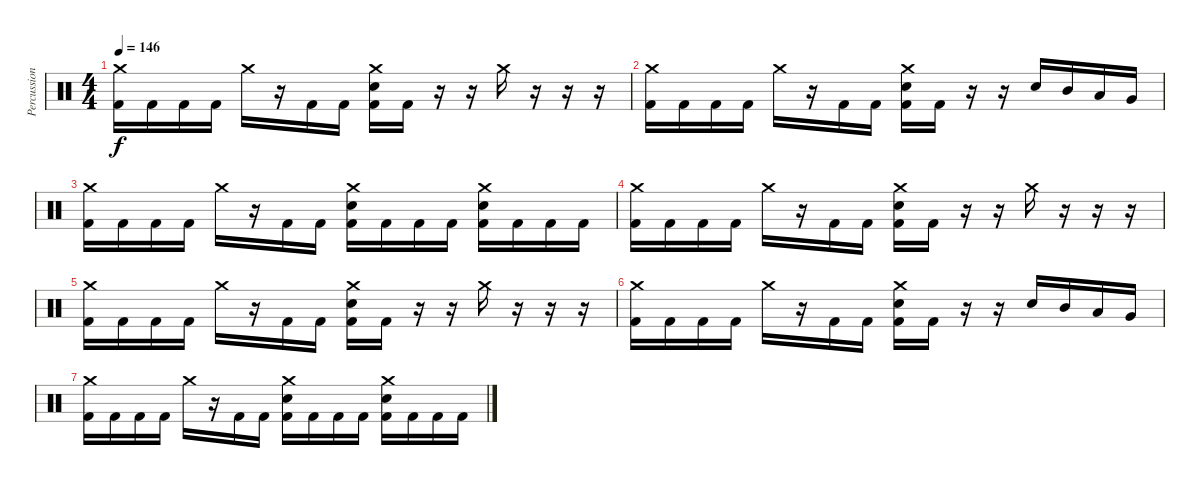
\track ("Percussion" "Percussion") {instrument percussion}
\staff {score}
\articulation defaults
\ts (4 4)
\tempo 146
\clef neutral
\ks c
("Crash medium (hit)" "Kick (hit) 2").16{dy f volume 16} "Kick (hit) 2".16 "Kick (hit) 2".16 "Kick (hit) 2".16 "Crash medium (hit)".16 r.16 "Kick (hit) 2".16 "Kick (hit) 2".16 ("Crash medium (hit)" "Snare (hit) 2" "Kick (hit) 2").16 "Kick (hit) 2".16 r.16 r.16 "Crash medium (hit)".16 r.16 r.16 r.16 |
("Crash medium (hit)" "Kick (hit) 2").16{volume 16} "Kick (hit) 2".16 "Kick (hit) 2".16 "Kick (hit) 2".16 "Crash medium (hit)".16 r.16 "Kick (hit) 2".16 "Kick (hit) 2".16 ("Crash medium (hit)" "Snare (hit) 2" "Kick (hit) 2").16 "Kick (hit) 2".16 r.16 r.16 "Snare (hit) 2".16 "Mid Tom (hit)".16 "Low Tom (hit)".16 "Very Low Tom (hit)".16 |
("Crash medium (hit)" "Kick (hit) 2").16{volume 16} "Kick (hit) 2".16 "Kick (hit) 2".16 "Kick (hit) 2".16 "Crash medium (hit)".16 r.16 "Kick (hit) 2".16 "Kick (hit) 2".16 ("Crash medium (hit)" "Snare (hit) 2" "Kick (hit) 2").16 "Kick (hit) 2".16 "Kick (hit) 2".16 "Kick (hit) 2".16 ("Crash medium (hit)" "Snare (hit) 2" "Kick (hit) 2").16 "Kick (hit) 2".16 "Kick (hit) 2".16 "Kick (hit) 2".16 |
("Crash medium (hit)" "Kick (hit) 2").16{volume 16} "Kick (hit) 2".16 "Kick (hit) 2".16 "Kick (hit) 2".16 "Crash medium (hit)".16 r.16 "Kick (hit) 2".16 "Kick (hit) 2".16 ("Crash medium (hit)" "Snare (hit) 2" "Kick (hit) 2").16 "Kick (hit) 2".16 r.16 r.16 "Crash medium (hit)".16 r.16 r.16 r.16 |
("Crash medium (hit)" "Kick (hit) 2").16{volume 16} "Kick (hit) 2".16 "Kick (hit) 2".16 "Kick (hit) 2".16 "Crash medium (hit)".16 r.16 "Kick (hit) 2".16 "Kick (hit) 2".16 ("Crash medium (hit)" "Snare (hit) 2" "Kick (hit) 2").16 "Kick (hit) 2".16 r.16 r.16 "Crash medium (hit)".16 r.16 r.16 r.16 |
("Crash medium (hit)" "Kick (hit) 2").16{volume 16} "Kick (hit) 2".16 "Kick (hit) 2".16 "Kick (hit) 2".16 "Crash medium (hit)".16 r.16 "Kick (hit) 2".16 "Kick (hit) 2".16 ("Crash medium (hit)" "Snare (hit) 2" "Kick (hit) 2").16 "Kick (hit) 2".16 r.16 r.16 "Snare (hit) 2".16 "Mid Tom (hit)".16 "Low Tom (hit)".16 "Very Low Tom (hit)".16 |
("Crash medium (hit)" "Kick (hit) 2").16{volume 16} "Kick (hit) 2".16 "Kick (hit) 2".16 "Kick (hit) 2".16 "Crash medium (hit)".16 r.16 "Kick (hit) 2".16 "Kick (hit) 2".16 ("Crash medium (hit)" "Snare (hit) 2" "Kick (hit) 2").16 "Kick (hit) 2".16 "Kick (hit) 2".16 "Kick (hit) 2".16 ("Crash medium (hit)" "Snare (hit) 2" "Kick (hit) 2").16 "Kick (hit) 2".16 "Kick (hit) 2".16 "Kick (hit) 2".16
